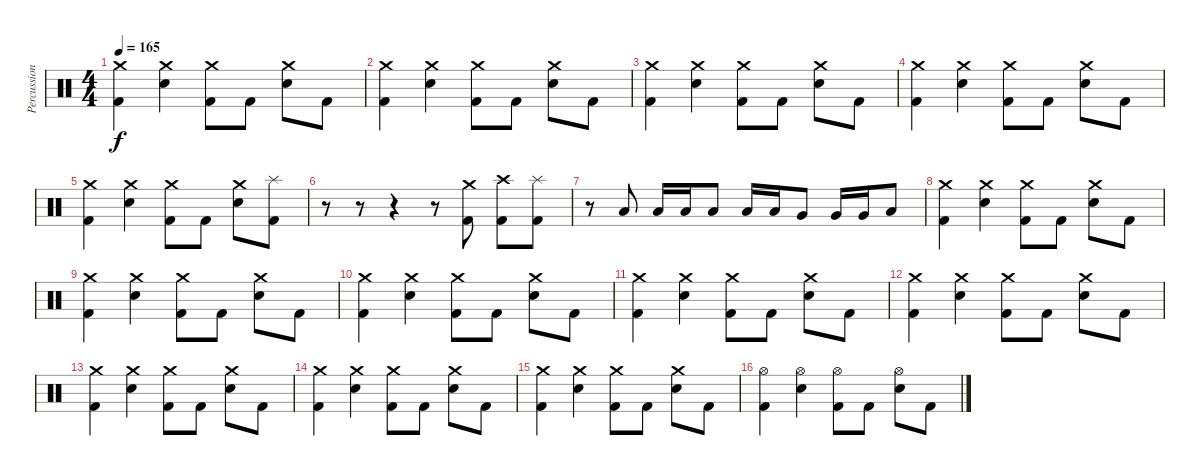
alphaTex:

\track ("Percussions" "Percussion") {instrument percussion}
\staff {score}
\articulation defaults
\ts (4 4)
\tempo 165
\clef neutral
\ks c
("Kick (hit) 2" "Crash medium (hit)").4{dy f} ("Snare (hit) 2" "Crash medium (hit)").4 ("Kick (hit) 2" "Crash medium (hit)").8 "Kick (hit) 2".8 ("Snare (hit) 2" "Crash medium (hit)").8 "Kick (hit) 2".8 |
("Kick (hit) 2" "Crash medium (hit)").4 ("Snare (hit) 2" "Crash medium (hit)").4 ("Kick (hit) 2" "Crash medium (hit)").8 "Kick (hit) 2".8 ("Snare (hit) 2" "Crash medium (hit)").8 "Kick (hit) 2".8 |
("Kick (hit) 2" "Crash medium (hit)").4 ("Snare (hit) 2" "Crash medium (hit)").4 ("Kick (hit) 2" "Crash medium (hit)").8 "Kick (hit) 2".8 ("Snare (hit) 2" "Crash medium (hit)").8 "Kick (hit) 2".8 |
("Kick (hit) 2" "Crash medium (hit)").4 ("Snare (hit) 2" "Crash medium (hit)").4 ("Kick (hit) 2" "Crash medium (hit)").8 "Kick (hit) 2".8 ("Snare (hit) 2" "Crash medium (hit)").8 "Kick (hit) 2".8 |
("Kick (hit) 2" "Crash medium (hit)").4 ("Snare (hit) 2" "Crash medium (hit)").4 ("Kick (hit) 2" "Crash medium (hit)").8 "Kick (hit) 2".8 ("Snare (hit) 2" "Crash medium (hit)").8 ("Kick (hit) 2" "Splash (hit)").8 |
r.8 r.8 r.4 r.8 ("Kick (hit) 2" "Crash medium (hit)").8 ("Kick (hit) 2" "Crash high (hit)").8 ("Kick (hit) 2" "Splash (hit)").8 |
r.8 "Low Tom (hit)".8 "Low Tom (hit)".16 "Low Tom (hit)".16 "Low Tom (hit)".8 "Low Tom (hit)".16 "Low Tom (hit)".16 "Very Low Tom (hit)".8 "Very Low Tom (hit)".16 "Very Low Tom (hit)".16 "Low Floor Tom (hit)".8 |
("Kick (hit) 2" "Crash medium (hit)").4 ("Snare (hit) 2" "Crash medium (hit)").4 ("Kick (hit) 2" "Crash medium (hit)").8 "Kick (hit) 2".8 ("Snare (hit) 2" "Crash medium (hit)").8 "Kick (hit) 2".8 |
("Kick (hit) 2" "Crash medium (hit)").4 ("Snare (hit) 2" "Crash medium (hit)").4 ("Kick (hit) 2" "Crash medium (hit)").8 "Kick (hit) 2".8 ("Snare (hit) 2" "Crash medium (hit)").8 "Kick (hit) 2".8 |
("Kick (hit) 2" "Crash medium (hit)").4 ("Snare (hit) 2" "Crash medium (hit)").4 ("Kick (hit) 2" "Crash medium (hit)").8 "Kick (hit) 2".8 ("Snare (hit) 2" "Crash medium (hit)").8 "Kick (hit) 2".8 |
("Kick (hit) 2" "Crash medium (hit)").4 ("Snare (hit) 2" "Crash medium (hit)").4 ("Kick (hit) 2" "Crash medium (hit)").8 "Kick (hit) 2".8 ("Snare (hit) 2" "Crash medium (hit)").8 "Kick (hit) 2".8 |
("Kick (hit) 2" "Crash medium (hit)").4 ("Snare (hit) 2" "Crash medium (hit)").4 ("Kick (hit) 2" "Crash medium (hit)").8 "Kick (hit) 2".8 ("Snare (hit) 2" "Crash medium (hit)").8 "Kick (hit) 2".8 |
("Kick (hit) 2" "Crash medium (hit)").4 ("Snare (hit) 2" "Crash medium (hit)").4 ("Kick (hit) 2" "Crash medium (hit)").8 "Kick (hit) 2".8 ("Snare (hit) 2" "Crash medium (hit)").8 "Kick (hit) 2".8 |
("Kick (hit) 2" "Crash medium (hit)").4 ("Snare (hit) 2" "Crash medium (hit)").4 ("Kick (hit) 2" "Crash medium (hit)").8 "Kick (hit) 2".8 ("Snare (hit) 2" "Crash medium (hit)").8 "Kick (hit) 2".8 |
("Kick (hit) 2" "Crash medium (hit)").4 ("Snare (hit) 2" "Crash medium (hit)").4 ("Kick (hit) 2" "Crash medium (hit)").8 "Kick (hit) 2".8 ("Snare (hit) 2" "Crash medium (hit)").8 "Kick (hit) 2".8 |
("Kick (hit) 2" "Hi-Hat (open)").4 ("Snare (hit) 2" "Hi-Hat (open)").4 ("Kick (hit) 2" "Hi-Hat (open)").8 "Kick (hit) 2".8 ("Snare (hit) 2" "Hi-Hat (open)").8 "Kick (hit) 2".8
